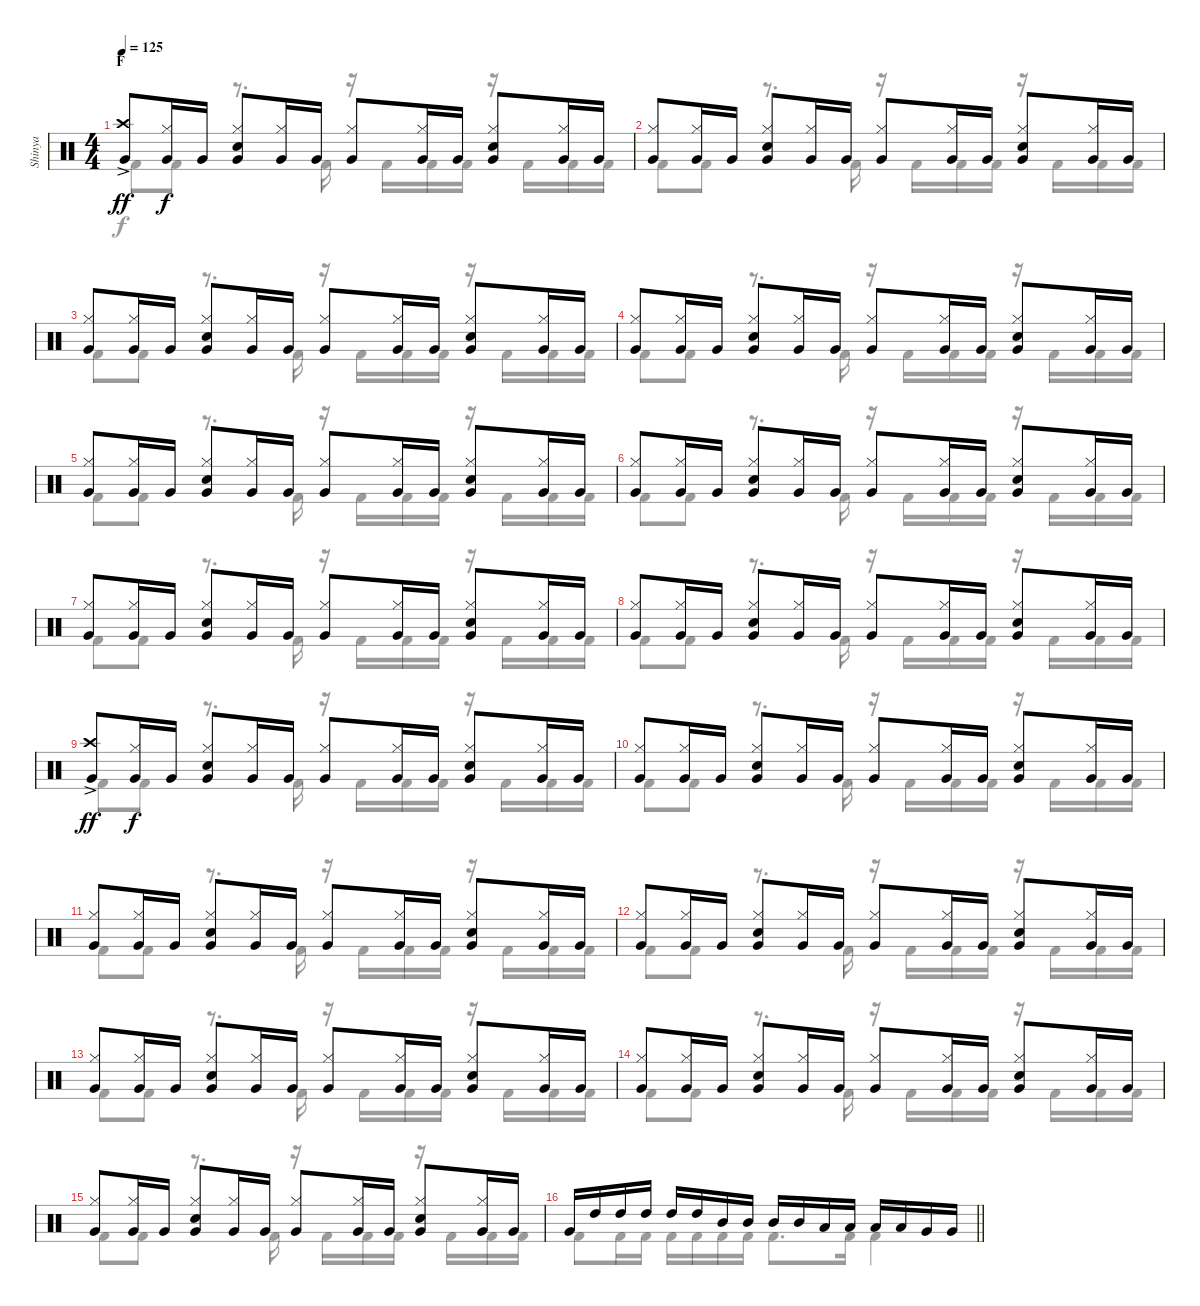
\track ("Shinya" "Shinya") {instrument percussion}
\staff {score}
\articulation defaults
\voice
\ts (4 4)
\section ("" "F")
\tempo 125
\clef neutral
\ks c
("Crash high (hit)"{ac} "Very Low Tom (hit)").8{dy ff} ("Hi-Hat (closed)" "Very Low Tom (hit)").16{dy f} "Very Low Tom (hit)".16 ("Hi-Hat (closed)" "Snare (hit) 2" "Very Low Tom (hit)").8 ("Hi-Hat (closed)" "Very Low Tom (hit)").16 "Very Low Tom (hit)".16 ("Hi-Hat (closed)" "Very Low Tom (hit)").8 ("Hi-Hat (closed)" "Very Low Tom (hit)").16 "Very Low Tom (hit)".16 ("Hi-Hat (closed)" "Snare (hit) 2" "Very Low Tom (hit)").8 ("Hi-Hat (closed)" "Very Low Tom (hit)").16 "Very Low Tom (hit)".16 |
("Hi-Hat (closed)" "Very Low Tom (hit)").8 ("Hi-Hat (closed)" "Very Low Tom (hit)").16 "Very Low Tom (hit)".16 ("Hi-Hat (closed)" "Snare (hit) 2" "Very Low Tom (hit)").8 ("Hi-Hat (closed)" "Very Low Tom (hit)").16 "Very Low Tom (hit)".16 ("Hi-Hat (closed)" "Very Low Tom (hit)").8 ("Hi-Hat (closed)" "Very Low Tom (hit)").16 "Very Low Tom (hit)".16 ("Hi-Hat (closed)" "Snare (hit) 2" "Very Low Tom (hit)").8 ("Hi-Hat (closed)" "Very Low Tom (hit)").16 "Very Low Tom (hit)".16 |
("Hi-Hat (closed)" "Very Low Tom (hit)").8 ("Hi-Hat (closed)" "Very Low Tom (hit)").16 "Very Low Tom (hit)".16 ("Hi-Hat (closed)" "Snare (hit) 2" "Very Low Tom (hit)").8 ("Hi-Hat (closed)" "Very Low Tom (hit)").16 "Very Low Tom (hit)".16 ("Hi-Hat (closed)" "Very Low Tom (hit)").8 ("Hi-Hat (closed)" "Very Low Tom (hit)").16 "Very Low Tom (hit)".16 ("Hi-Hat (closed)" "Snare (hit) 2" "Very Low Tom (hit)").8 ("Hi-Hat (closed)" "Very Low Tom (hit)").16 "Very Low Tom (hit)".16 |
("Hi-Hat (closed)" "Very Low Tom (hit)").8 ("Hi-Hat (closed)" "Very Low Tom (hit)").16 "Very Low Tom (hit)".16 ("Hi-Hat (closed)" "Snare (hit) 2" "Very Low Tom (hit)").8 ("Hi-Hat (closed)" "Very Low Tom (hit)").16 "Very Low Tom (hit)".16 ("Hi-Hat (closed)" "Very Low Tom (hit)").8 ("Hi-Hat (closed)" "Very Low Tom (hit)").16 "Very Low Tom (hit)".16 ("Hi-Hat (closed)" "Snare (hit) 2" "Very Low Tom (hit)").8 ("Hi-Hat (closed)" "Very Low Tom (hit)").16 "Very Low Tom (hit)".16 |
("Hi-Hat (closed)" "Very Low Tom (hit)").8 ("Hi-Hat (closed)" "Very Low Tom (hit)").16 "Very Low Tom (hit)".16 ("Hi-Hat (closed)" "Snare (hit) 2" "Very Low Tom (hit)").8 ("Hi-Hat (closed)" "Very Low Tom (hit)").16 "Very Low Tom (hit)".16 ("Hi-Hat (closed)" "Very Low Tom (hit)").8 ("Hi-Hat (closed)" "Very Low Tom (hit)").16 "Very Low Tom (hit)".16 ("Hi-Hat (closed)" "Snare (hit) 2" "Very Low Tom (hit)").8 ("Hi-Hat (closed)" "Very Low Tom (hit)").16 "Very Low Tom (hit)".16 |
("Hi-Hat (closed)" "Very Low Tom (hit)").8 ("Hi-Hat (closed)" "Very Low Tom (hit)").16 "Very Low Tom (hit)".16 ("Hi-Hat (closed)" "Snare (hit) 2" "Very Low Tom (hit)").8 ("Hi-Hat (closed)" "Very Low Tom (hit)").16 "Very Low Tom (hit)".16 ("Hi-Hat (closed)" "Very Low Tom (hit)").8 ("Hi-Hat (closed)" "Very Low Tom (hit)").16 "Very Low Tom (hit)".16 ("Hi-Hat (closed)" "Snare (hit) 2" "Very Low Tom (hit)").8 ("Hi-Hat (closed)" "Very Low Tom (hit)").16 "Very Low Tom (hit)".16 |
("Hi-Hat (closed)" "Very Low Tom (hit)").8 ("Hi-Hat (closed)" "Very Low Tom (hit)").16 "Very Low Tom (hit)".16 ("Hi-Hat (closed)" "Snare (hit) 2" "Very Low Tom (hit)").8 ("Hi-Hat (closed)" "Very Low Tom (hit)").16 "Very Low Tom (hit)".16 ("Hi-Hat (closed)" "Very Low Tom (hit)").8 ("Hi-Hat (closed)" "Very Low Tom (hit)").16 "Very Low Tom (hit)".16 ("Hi-Hat (closed)" "Snare (hit) 2" "Very Low Tom (hit)").8 ("Hi-Hat (closed)" "Very Low Tom (hit)").16 "Very Low Tom (hit)".16 |
("Hi-Hat (closed)" "Very Low Tom (hit)").8 ("Hi-Hat (closed)" "Very Low Tom (hit)").16 "Very Low Tom (hit)".16 ("Hi-Hat (closed)" "Snare (hit) 2" "Very Low Tom (hit)").8 ("Hi-Hat (closed)" "Very Low Tom (hit)").16 "Very Low Tom (hit)".16 ("Hi-Hat (closed)" "Very Low Tom (hit)").8 ("Hi-Hat (closed)" "Very Low Tom (hit)").16 "Very Low Tom (hit)".16 ("Hi-Hat (closed)" "Snare (hit) 2" "Very Low Tom (hit)").8 ("Hi-Hat (closed)" "Very Low Tom (hit)").16 "Very Low Tom (hit)".16 |
("Crash high (hit)"{ac} "Very Low Tom (hit)").8{dy ff} ("Hi-Hat (closed)" "Very Low Tom (hit)").16{dy f} "Very Low Tom (hit)".16 ("Hi-Hat (closed)" "Snare (hit) 2" "Very Low Tom (hit)").8 ("Hi-Hat (closed)" "Very Low Tom (hit)").16 "Very Low Tom (hit)".16 ("Hi-Hat (closed)" "Very Low Tom (hit)").8 ("Hi-Hat (closed)" "Very Low Tom (hit)").16 "Very Low Tom (hit)".16 ("Hi-Hat (closed)" "Snare (hit) 2" "Very Low Tom (hit)").8 ("Hi-Hat (closed)" "Very Low Tom (hit)").16 "Very Low Tom (hit)".16 |
("Hi-Hat (closed)" "Very Low Tom (hit)").8 ("Hi-Hat (closed)" "Very Low Tom (hit)").16 "Very Low Tom (hit)".16 ("Hi-Hat (closed)" "Snare (hit) 2" "Very Low Tom (hit)").8 ("Hi-Hat (closed)" "Very Low Tom (hit)").16 "Very Low Tom (hit)".16 ("Hi-Hat (closed)" "Very Low Tom (hit)").8 ("Hi-Hat (closed)" "Very Low Tom (hit)").16 "Very Low Tom (hit)".16 ("Hi-Hat (closed)" "Snare (hit) 2" "Very Low Tom (hit)").8 ("Hi-Hat (closed)" "Very Low Tom (hit)").16 "Very Low Tom (hit)".16 |
("Hi-Hat (closed)" "Very Low Tom (hit)").8 ("Hi-Hat (closed)" "Very Low Tom (hit)").16 "Very Low Tom (hit)".16 ("Hi-Hat (closed)" "Snare (hit) 2" "Very Low Tom (hit)").8 ("Hi-Hat (closed)" "Very Low Tom (hit)").16 "Very Low Tom (hit)".16 ("Hi-Hat (closed)" "Very Low Tom (hit)").8 ("Hi-Hat (closed)" "Very Low Tom (hit)").16 "Very Low Tom (hit)".16 ("Hi-Hat (closed)" "Snare (hit) 2" "Very Low Tom (hit)").8 ("Hi-Hat (closed)" "Very Low Tom (hit)").16 "Very Low Tom (hit)".16 |
("Hi-Hat (closed)" "Very Low Tom (hit)").8 ("Hi-Hat (closed)" "Very Low Tom (hit)").16 "Very Low Tom (hit)".16 ("Hi-Hat (closed)" "Snare (hit) 2" "Very Low Tom (hit)").8 ("Hi-Hat (closed)" "Very Low Tom (hit)").16 "Very Low Tom (hit)".16 ("Hi-Hat (closed)" "Very Low Tom (hit)").8 ("Hi-Hat (closed)" "Very Low Tom (hit)").16 "Very Low Tom (hit)".16 ("Hi-Hat (closed)" "Snare (hit) 2" "Very Low Tom (hit)").8 ("Hi-Hat (closed)" "Very Low Tom (hit)").16 "Very Low Tom (hit)".16 |
("Hi-Hat (closed)" "Very Low Tom (hit)").8 ("Hi-Hat (closed)" "Very Low Tom (hit)").16 "Very Low Tom (hit)".16 ("Hi-Hat (closed)" "Snare (hit) 2" "Very Low Tom (hit)").8 ("Hi-Hat (closed)" "Very Low Tom (hit)").16 "Very Low Tom (hit)".16 ("Hi-Hat (closed)" "Very Low Tom (hit)").8 ("Hi-Hat (closed)" "Very Low Tom (hit)").16 "Very Low Tom (hit)".16 ("Hi-Hat (closed)" "Snare (hit) 2" "Very Low Tom (hit)").8 ("Hi-Hat (closed)" "Very Low Tom (hit)").16 "Very Low Tom (hit)".16 |
("Hi-Hat (closed)" "Very Low Tom (hit)").8 ("Hi-Hat (closed)" "Very Low Tom (hit)").16 "Very Low Tom (hit)".16 ("Hi-Hat (closed)" "Snare (hit) 2" "Very Low Tom (hit)").8 ("Hi-Hat (closed)" "Very Low Tom (hit)").16 "Very Low Tom (hit)".16 ("Hi-Hat (closed)" "Very Low Tom (hit)").8 ("Hi-Hat (closed)" "Very Low Tom (hit)").16 "Very Low Tom (hit)".16 ("Hi-Hat (closed)" "Snare (hit) 2" "Very Low Tom (hit)").8 ("Hi-Hat (closed)" "Very Low Tom (hit)").16 "Very Low Tom (hit)".16 |
("Hi-Hat (closed)" "Very Low Tom (hit)").8 ("Hi-Hat (closed)" "Very Low Tom (hit)").16 "Very Low Tom (hit)".16 ("Hi-Hat (closed)" "Snare (hit) 2" "Very Low Tom (hit)").8 ("Hi-Hat (closed)" "Very Low Tom (hit)").16 "Very Low Tom (hit)".16 ("Hi-Hat (closed)" "Very Low Tom (hit)").8 ("Hi-Hat (closed)" "Very Low Tom (hit)").16 "Very Low Tom (hit)".16 ("Hi-Hat (closed)" "Snare (hit) 2" "Very Low Tom (hit)").8 ("Hi-Hat (closed)" "Very Low Tom (hit)").16 "Very Low Tom (hit)".16 |
\barLineRight lightlight "Very Low Tom (hit)".16 "High Tom (hit)".16 "High Tom (hit)".16 "High Tom (hit)".16 "High Tom (hit)".16 "High Tom (hit)".16 "Mid Tom (hit)".16 "Mid Tom (hit)".16 "Mid Tom (hit)".16 "Mid Tom (hit)".16 "Low Tom (hit)".16 "Low Tom (hit)".16 "Low Tom (hit)".16 "Low Tom (hit)".16 "Very Low Tom (hit)".16 "Very Low Tom (hit)".16
\voice
\clef neutral
\ottava regular
\simile none
\ks c "Kick (hit) 2".8{dy f} "Kick (hit) 2".8
r.8{d} "Kick (hit) 2".16 r.16 "Kick (hit) 2".16 "Kick (hit) 2".16 "Kick (hit) 2".16 r.16 "Kick (hit) 2".16 "Kick (hit) 2".16 "Kick (hit) 2".16 |
"Kick (hit) 2".8 "Kick (hit) 2".8 r.8{d} "Kick (hit) 2".16 r.16 "Kick (hit) 2".16 "Kick (hit) 2".16 "Kick (hit) 2".16 r.16 "Kick (hit) 2".16 "Kick (hit) 2".16 "Kick (hit) 2".16 |
"Kick (hit) 2".8 "Kick (hit) 2".8 r.8{d} "Kick (hit) 2".16 r.16 "Kick (hit) 2".16 "Kick (hit) 2".16 "Kick (hit) 2".16 r.16 "Kick (hit) 2".16 "Kick (hit) 2".16 "Kick (hit) 2".16 |
"Kick (hit) 2".8 "Kick (hit) 2".8 r.8{d} "Kick (hit) 2".16 r.16 "Kick (hit) 2".16 "Kick (hit) 2".16 "Kick (hit) 2".16 r.16 "Kick (hit) 2".16 "Kick (hit) 2".16 "Kick (hit) 2".16 |
"Kick (hit) 2".8 "Kick (hit) 2".8 r.8{d} "Kick (hit) 2".16 r.16 "Kick (hit) 2".16 "Kick (hit) 2".16 "Kick (hit) 2".16 r.16 "Kick (hit) 2".16 "Kick (hit) 2".16 "Kick (hit) 2".16 |
"Kick (hit) 2".8 "Kick (hit) 2".8 r.8{d} "Kick (hit) 2".16 r.16 "Kick (hit) 2".16 "Kick (hit) 2".16 "Kick (hit) 2".16 r.16 "Kick (hit) 2".16 "Kick (hit) 2".16 "Kick (hit) 2".16 |
"Kick (hit) 2".8 "Kick (hit) 2".8 r.8{d} "Kick (hit) 2".16 r.16 "Kick (hit) 2".16 "Kick (hit) 2".16 "Kick (hit) 2".16 r.16 "Kick (hit) 2".16 "Kick (hit) 2".16 "Kick (hit) 2".16 |
"Kick (hit) 2".8 "Kick (hit) 2".8 r.8{d} "Kick (hit) 2".16 r.16 "Kick (hit) 2".16 "Kick (hit) 2".16 "Kick (hit) 2".16 r.16 "Kick (hit) 2".16 "Kick (hit) 2".16 "Kick (hit) 2".16 |
"Kick (hit) 2".8 "Kick (hit) 2".8 r.8{d} "Kick (hit) 2".16 r.16 "Kick (hit) 2".16 "Kick (hit) 2".16 "Kick (hit) 2".16 r.16 "Kick (hit) 2".16 "Kick (hit) 2".16 "Kick (hit) 2".16 |
"Kick (hit) 2".8 "Kick (hit) 2".8 r.8{d} "Kick (hit) 2".16 r.16 "Kick (hit) 2".16 "Kick (hit) 2".16 "Kick (hit) 2".16 r.16 "Kick (hit) 2".16 "Kick (hit) 2".16 "Kick (hit) 2".16 |
"Kick (hit) 2".8 "Kick (hit) 2".8 r.8{d} "Kick (hit) 2".16 r.16 "Kick (hit) 2".16 "Kick (hit) 2".16 "Kick (hit) 2".16 r.16 "Kick (hit) 2".16 "Kick (hit) 2".16 "Kick (hit) 2".16 |
"Kick (hit) 2".8 "Kick (hit) 2".8 r.8{d} "Kick (hit) 2".16 r.16 "Kick (hit) 2".16 "Kick (hit) 2".16 "Kick (hit) 2".16 r.16 "Kick (hit) 2".16 "Kick (hit) 2".16 "Kick (hit) 2".16 |
"Kick (hit) 2".8 "Kick (hit) 2".8 r.8{d} "Kick (hit) 2".16 r.16 "Kick (hit) 2".16 "Kick (hit) 2".16 "Kick (hit) 2".16 r.16 "Kick (hit) 2".16 "Kick (hit) 2".16 "Kick (hit) 2".16 |
"Kick (hit) 2".8 "Kick (hit) 2".8 r.8{d} "Kick (hit) 2".16 r.16 "Kick (hit) 2".16 "Kick (hit) 2".16 "Kick (hit) 2".16 r.16 "Kick (hit) 2".16 "Kick (hit) 2".16 "Kick (hit) 2".16 |
"Kick (hit) 2".8 "Kick (hit) 2".8 r.8{d} "Kick (hit) 2".16 r.16 "Kick (hit) 2".16 "Kick (hit) 2".16 "Kick (hit) 2".16 r.16 "Kick (hit) 2".16 "Kick (hit) 2".16 "Kick (hit) 2".16 |
\barLineRight lightlight "Kick (hit) 2".8 "Kick (hit) 2".16 "Kick (hit) 2".16 "Kick (hit) 2".16 "Kick (hit) 2".16 "Kick (hit) 2".16 "Kick (hit) 2".16 "Kick (hit) 2".8{d} "Kick (hit) 2".16 "Kick (hit) 2".4
